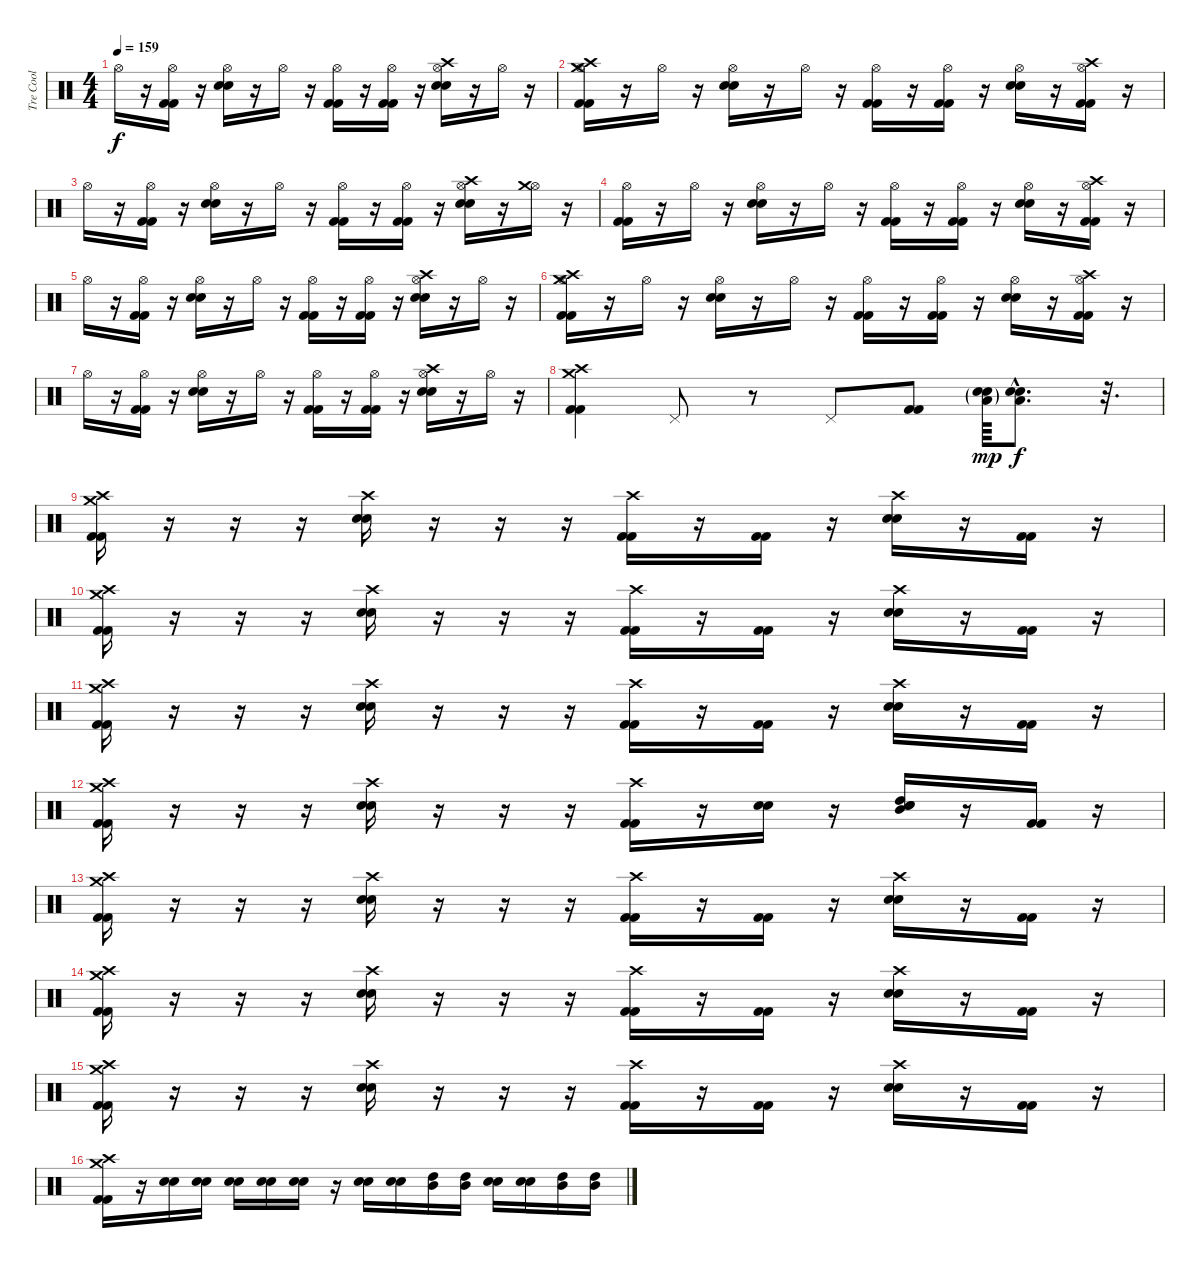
\track ("Tre Cool" "Tre Cool") {instrument percussion}
\staff {score}
\articulation defaults
\ts (4 4)
\tempo 159
\clef neutral
\ks c "Hi-Hat (open)".16{dy f}
r.16 ("Hi-Hat (open)" "Kick (hit) 2" "Kick (hit) 2").16 r.16 ("Hi-Hat (open)" "Snare (hit) 2" "Snare (hit) 2").16 r.16 "Hi-Hat (open)".16 r.16 ("Hi-Hat (open)" "Kick (hit) 2" "Kick (hit) 2").16 r.16 ("Hi-Hat (open)" "Kick (hit) 2" "Kick (hit) 2").16 r.16 ("Hi-Hat (open)" "Crash high (hit)" "Snare (hit) 2" "Snare (hit) 2").16 r.16 "Hi-Hat (open)".16 r.16 |
("Hi-Hat (open)" "Crash high (hit)" "Crash medium (hit)" "Kick (hit) 2" "Kick (hit) 2").16 r.16 "Hi-Hat (open)".16 r.16 ("Hi-Hat (open)" "Snare (hit) 2" "Snare (hit) 2").16 r.16 "Hi-Hat (open)".16 r.16 ("Hi-Hat (open)" "Kick (hit) 2" "Kick (hit) 2").16 r.16 ("Hi-Hat (open)" "Kick (hit) 2" "Kick (hit) 2").16 r.16 ("Hi-Hat (open)" "Snare (hit) 2" "Snare (hit) 2").16 r.16 ("Hi-Hat (open)" "Crash high (hit)" "Kick (hit) 2" "Kick (hit) 2").16 r.16 |
"Hi-Hat (open)".16 r.16 ("Hi-Hat (open)" "Kick (hit) 2" "Kick (hit) 2").16 r.16 ("Hi-Hat (open)" "Snare (hit) 2" "Snare (hit) 2").16 r.16 "Hi-Hat (open)".16 r.16 ("Hi-Hat (open)" "Kick (hit) 2" "Kick (hit) 2").16 r.16 ("Hi-Hat (open)" "Kick (hit) 2" "Kick (hit) 2").16 r.16 ("Hi-Hat (open)" "Crash high (hit)" "Snare (hit) 2" "Snare (hit) 2").16 r.16 ("Hi-Hat (open)" "Crash medium (hit)").16 r.16 |
("Hi-Hat (open)" "Kick (hit) 2" "Kick (hit) 2").16 r.16 "Hi-Hat (open)".16 r.16 ("Hi-Hat (open)" "Snare (hit) 2" "Snare (hit) 2").16 r.16 "Hi-Hat (open)".16 r.16 ("Hi-Hat (open)" "Kick (hit) 2" "Kick (hit) 2").16 r.16 ("Hi-Hat (open)" "Kick (hit) 2" "Kick (hit) 2").16 r.16 ("Hi-Hat (open)" "Snare (hit) 2" "Snare (hit) 2").16 r.16 ("Hi-Hat (open)" "Crash high (hit)" "Kick (hit) 2" "Kick (hit) 2").16 r.16 |
"Hi-Hat (open)".16 r.16 ("Hi-Hat (open)" "Kick (hit) 2" "Kick (hit) 2").16 r.16 ("Hi-Hat (open)" "Snare (hit) 2" "Snare (hit) 2").16 r.16 "Hi-Hat (open)".16 r.16 ("Hi-Hat (open)" "Kick (hit) 2" "Kick (hit) 2").16 r.16 ("Hi-Hat (open)" "Kick (hit) 2" "Kick (hit) 2").16 r.16 ("Hi-Hat (open)" "Crash high (hit)" "Snare (hit) 2" "Snare (hit) 2").16 r.16 "Hi-Hat (open)".16 r.16 |
("Hi-Hat (open)" "Crash high (hit)" "Crash medium (hit)" "Kick (hit) 2" "Kick (hit) 2").16 r.16 "Hi-Hat (open)".16 r.16 ("Hi-Hat (open)" "Snare (hit) 2" "Snare (hit) 2").16 r.16 "Hi-Hat (open)".16 r.16 ("Hi-Hat (open)" "Kick (hit) 2" "Kick (hit) 2").16 r.16 ("Hi-Hat (open)" "Kick (hit) 2" "Kick (hit) 2").16 r.16 ("Hi-Hat (open)" "Snare (hit) 2" "Snare (hit) 2").16 r.16 ("Hi-Hat (open)" "Crash high (hit)" "Kick (hit) 2" "Kick (hit) 2").16 r.16 |
"Hi-Hat (open)".16 r.16 ("Hi-Hat (open)" "Kick (hit) 2" "Kick (hit) 2").16 r.16 ("Hi-Hat (open)" "Snare (hit) 2" "Snare (hit) 2").16 r.16 "Hi-Hat (open)".16 r.16 ("Hi-Hat (open)" "Kick (hit) 2" "Kick (hit) 2").16 r.16 ("Hi-Hat (open)" "Kick (hit) 2" "Kick (hit) 2").16 r.16 ("Hi-Hat (open)" "Crash high (hit)" "Snare (hit) 2" "Snare (hit) 2").16 r.16 "Hi-Hat (open)".16 r.16 |
("Crash medium (hit)" "Crash high (hit)" "Kick (hit) 2" "Kick (hit) 2").4 "Pedal Hi-Hat (hit)".8 r.8 "Pedal Hi-Hat (hit)".8 ("Kick (hit) 2" "Kick (hit) 2").8 ("Low Tom (hit)"{g} "Snare (hit) 2"{g} "Snare (hit) 2"{g}).64{dy mp} ("Low Tom (hit)"{hac} "Snare (hit) 2"{hac} "Snare (hit) 2"{hac}).8{d dy f} r.32{d} |
("Crash high (hit)" "Crash medium (hit)" "Kick (hit) 2" "Kick (hit) 2").16 r.16 r.16 r.16 ("Crash high (hit)" "Snare (hit) 2" "Snare (hit) 2").16 r.16 r.16 r.16 ("Crash high (hit)" "Kick (hit) 2" "Kick (hit) 2").16 r.16 ("Kick (hit) 2" "Kick (hit) 2").16 r.16 ("Crash high (hit)" "Snare (hit) 2" "Snare (hit) 2").16 r.16 ("Kick (hit) 2" "Kick (hit) 2").16 r.16 |
("Crash high (hit)" "Crash medium (hit)" "Kick (hit) 2" "Kick (hit) 2").16 r.16 r.16 r.16 ("Crash high (hit)" "Snare (hit) 2" "Snare (hit) 2").16 r.16 r.16 r.16 ("Crash high (hit)" "Kick (hit) 2" "Kick (hit) 2").16 r.16 ("Kick (hit) 2" "Kick (hit) 2").16 r.16 ("Crash high (hit)" "Snare (hit) 2" "Snare (hit) 2").16 r.16 ("Kick (hit) 2" "Kick (hit) 2").16 r.16 |
("Crash high (hit)" "Crash medium (hit)" "Kick (hit) 2" "Kick (hit) 2").16 r.16 r.16 r.16 ("Crash high (hit)" "Snare (hit) 2" "Snare (hit) 2").16 r.16 r.16 r.16 ("Crash high (hit)" "Kick (hit) 2" "Kick (hit) 2").16 r.16 ("Kick (hit) 2" "Kick (hit) 2").16 r.16 ("Crash high (hit)" "Snare (hit) 2" "Snare (hit) 2").16 r.16 ("Kick (hit) 2" "Kick (hit) 2").16 r.16 |
("Crash high (hit)" "Crash medium (hit)" "Kick (hit) 2" "Kick (hit) 2").16 r.16 r.16 r.16 ("Crash high (hit)" "Snare (hit) 2" "Snare (hit) 2").16 r.16 r.16 r.16 ("Crash high (hit)" "Kick (hit) 2" "Kick (hit) 2").16 r.16 ("Snare (hit) 2" "Snare (hit) 2").16 r.16 ("High Tom (hit)" "Mid Tom (hit)" "Snare (hit) 2" "Snare (hit) 2").16 r.16 ("Kick (hit) 2" "Kick (hit) 2").16 r.16 |
("Crash high (hit)" "Crash medium (hit)" "Kick (hit) 2" "Kick (hit) 2").16 r.16 r.16 r.16 ("Crash high (hit)" "Snare (hit) 2" "Snare (hit) 2").16 r.16 r.16 r.16 ("Crash high (hit)" "Kick (hit) 2" "Kick (hit) 2").16 r.16 ("Kick (hit) 2" "Kick (hit) 2").16 r.16 ("Crash high (hit)" "Snare (hit) 2" "Snare (hit) 2").16 r.16 ("Kick (hit) 2" "Kick (hit) 2").16 r.16 |
("Crash high (hit)" "Crash medium (hit)" "Kick (hit) 2" "Kick (hit) 2").16 r.16 r.16 r.16 ("Crash high (hit)" "Snare (hit) 2" "Snare (hit) 2").16 r.16 r.16 r.16 ("Crash high (hit)" "Kick (hit) 2" "Kick (hit) 2").16 r.16 ("Kick (hit) 2" "Kick (hit) 2").16 r.16 ("Crash high (hit)" "Snare (hit) 2" "Snare (hit) 2").16 r.16 ("Kick (hit) 2" "Kick (hit) 2").16 r.16 |
("Crash high (hit)" "Crash medium (hit)" "Kick (hit) 2" "Kick (hit) 2").16 r.16 r.16 r.16 ("Crash high (hit)" "Snare (hit) 2" "Snare (hit) 2").16 r.16 r.16 r.16 ("Crash high (hit)" "Kick (hit) 2" "Kick (hit) 2").16 r.16 ("Kick (hit) 2" "Kick (hit) 2").16 r.16 ("Crash high (hit)" "Snare (hit) 2" "Snare (hit) 2").16 r.16 ("Kick (hit) 2" "Kick (hit) 2").16 r.16 |
("Crash high (hit)" "Crash medium (hit)" "Kick (hit) 2" "Kick (hit) 2").16 r.16 ("Snare (hit) 2" "Snare (hit) 2").16 ("Snare (hit) 2" "Snare (hit) 2").16 ("Snare (hit) 2" "Snare (hit) 2").16 ("Snare (hit) 2" "Snare (hit) 2").16 ("Snare (hit) 2" "Snare (hit) 2").16 r.16 ("Snare (hit) 2" "Snare (hit) 2").16 ("Snare (hit) 2" "Snare (hit) 2").16 ("Mid Tom (hit)" "High Tom (hit)").16 ("Mid Tom (hit)" "High Tom (hit)").16 ("Snare (hit) 2" "Snare (hit) 2").16 ("Snare (hit) 2" "Snare (hit) 2").16 ("High Tom (hit)" "Mid Tom (hit)").16 ("High Tom (hit)" "Mid Tom (hit)").16
